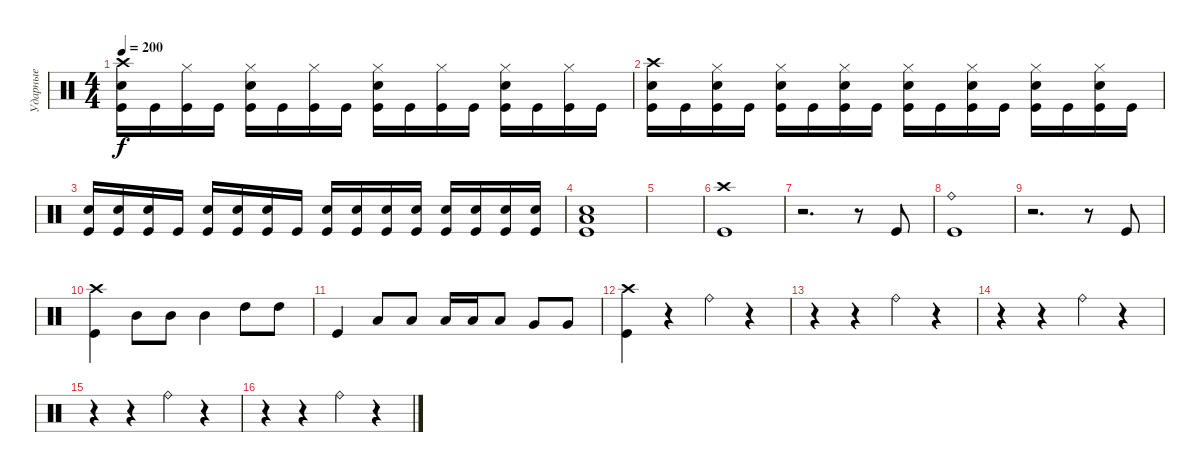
\track ("Ударные" "Ударные") {instrument percussion}
\staff {score}
\articulation defaults
\ts (4 4)
\tempo 200
\clef neutral
\ks c
("Crash high (hit)" "Electric Snare (hit)" "Kick (hit)").16{dy f} "Kick (hit)".16 ("Hi-Hat (closed)" "Kick (hit)").16 "Kick (hit)".16 ("Hi-Hat (closed)" "Electric Snare (hit)" "Kick (hit)").16 "Kick (hit)".16 ("Hi-Hat (closed)" "Kick (hit)").16 "Kick (hit)".16 ("Hi-Hat (closed)" "Electric Snare (hit)" "Kick (hit)").16 "Kick (hit)".16 ("Hi-Hat (closed)" "Kick (hit)").16 "Kick (hit)".16 ("Hi-Hat (closed)" "Electric Snare (hit)" "Kick (hit)").16 "Kick (hit)".16 ("Hi-Hat (closed)" "Kick (hit)").16 "Kick (hit)".16 |
("Crash high (hit)" "Electric Snare (hit)" "Kick (hit)").16 "Kick (hit)".16 ("Hi-Hat (closed)" "Electric Snare (hit)" "Kick (hit)").16 "Kick (hit)".16 ("Hi-Hat (closed)" "Electric Snare (hit)" "Kick (hit)").16 "Kick (hit)".16 ("Hi-Hat (closed)" "Electric Snare (hit)" "Kick (hit)").16 "Kick (hit)".16 ("Hi-Hat (closed)" "Electric Snare (hit)" "Kick (hit)").16 "Kick (hit)".16 ("Hi-Hat (closed)" "Electric Snare (hit)" "Kick (hit)").16 "Kick (hit)".16 ("Hi-Hat (closed)" "Electric Snare (hit)" "Kick (hit)").16 "Kick (hit)".16 ("Hi-Hat (closed)" "Electric Snare (hit)" "Kick (hit)").16 "Kick (hit)".16 |
("Electric Snare (hit)" "Kick (hit)").16 ("Electric Snare (hit)" "Kick (hit)").16 ("Electric Snare (hit)" "Kick (hit)").16 "Kick (hit)".16 ("Electric Snare (hit)" "Kick (hit)").16 ("Electric Snare (hit)" "Kick (hit)").16 ("Electric Snare (hit)" "Kick (hit)").16 "Kick (hit)".16 ("Electric Snare (hit)" "Kick (hit)").16 ("Electric Snare (hit)" "Kick (hit)").16 ("Electric Snare (hit)" "Kick (hit)").16 ("Electric Snare (hit)" "Kick (hit)").16 ("Electric Snare (hit)" "Kick (hit)").16 ("Electric Snare (hit)" "Kick (hit)").16 ("Electric Snare (hit)" "Kick (hit)").16 ("Electric Snare (hit)" "Kick (hit)").16 |
("Electric Snare (hit)" "Low Tom (hit)" "Kick (hit)").1 |
|
("Crash high (hit)" "Kick (hit)").1 |
r.2{d} r.8 "Kick (hit)".8 |
("Ride (bell)" "Kick (hit)").1 |
r.2{d} r.8 "Kick (hit)".8 |
("Crash high (hit)" "Kick (hit)").4 "Mid Tom (hit)".8 "Mid Tom (hit)".8 "Mid Tom (hit)".4 "High Tom (hit)".8 "High Tom (hit)".8 |
"Kick (hit)".4 "Low Tom (hit)".8 "Low Tom (hit)".8 "Low Tom (hit)".16 "Low Tom (hit)".16 "Low Tom (hit)".8 "Very Low Tom (hit)".8 "Very Low Tom (hit)".8 |
("Crash high (hit)" "Kick (hit)").4 r.4 "Ride (bell)".4 r.4 |
r.4 r.4 "Ride (bell)".4 r.4 |
r.4 r.4 "Ride (bell)".4 r.4 |
r.4 r.4 "Ride (bell)".4 r.4 |
r.4 r.4 "Ride (bell)".4 r.4
